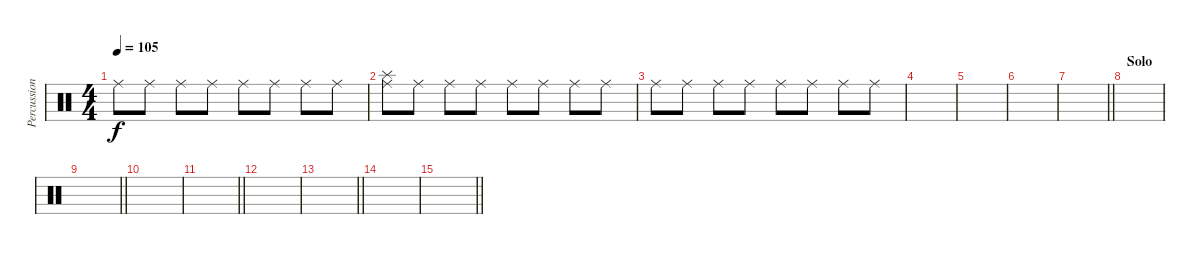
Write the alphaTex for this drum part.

\track ("Percussion" "Percussion") {instrument percussion}
\staff {score}
\articulation defaults
\ts (4 4)
\tempo 105
\clef neutral
\ks c "Ride (middle)".8{dy f} "Ride (middle)".8 "Ride (middle)".8 "Ride (middle)".8 "Ride (middle)".8 "Ride (middle)".8 "Ride (middle)".8 "Ride (middle)".8
|
("Splash (hit)" "Ride (middle)").8 "Ride (middle)".8 "Ride (middle)".8 "Ride (middle)".8 "Ride (middle)".8 "Ride (middle)".8 "Ride (middle)".8 "Ride (middle)".8 |
"Ride (middle)".8 "Ride (middle)".8 "Ride (middle)".8 "Ride (middle)".8 "Ride (middle)".8 "Ride (middle)".8 "Ride (middle)".8 "Ride (middle)".8 |
|
|
|
\barLineRight lightlight
|
\section ("" "Solo")
|
\barLineRight lightlight
|
|
\barLineRight lightlight
|
|
\barLineRight lightlight
|
|
\barLineRight lightlight
